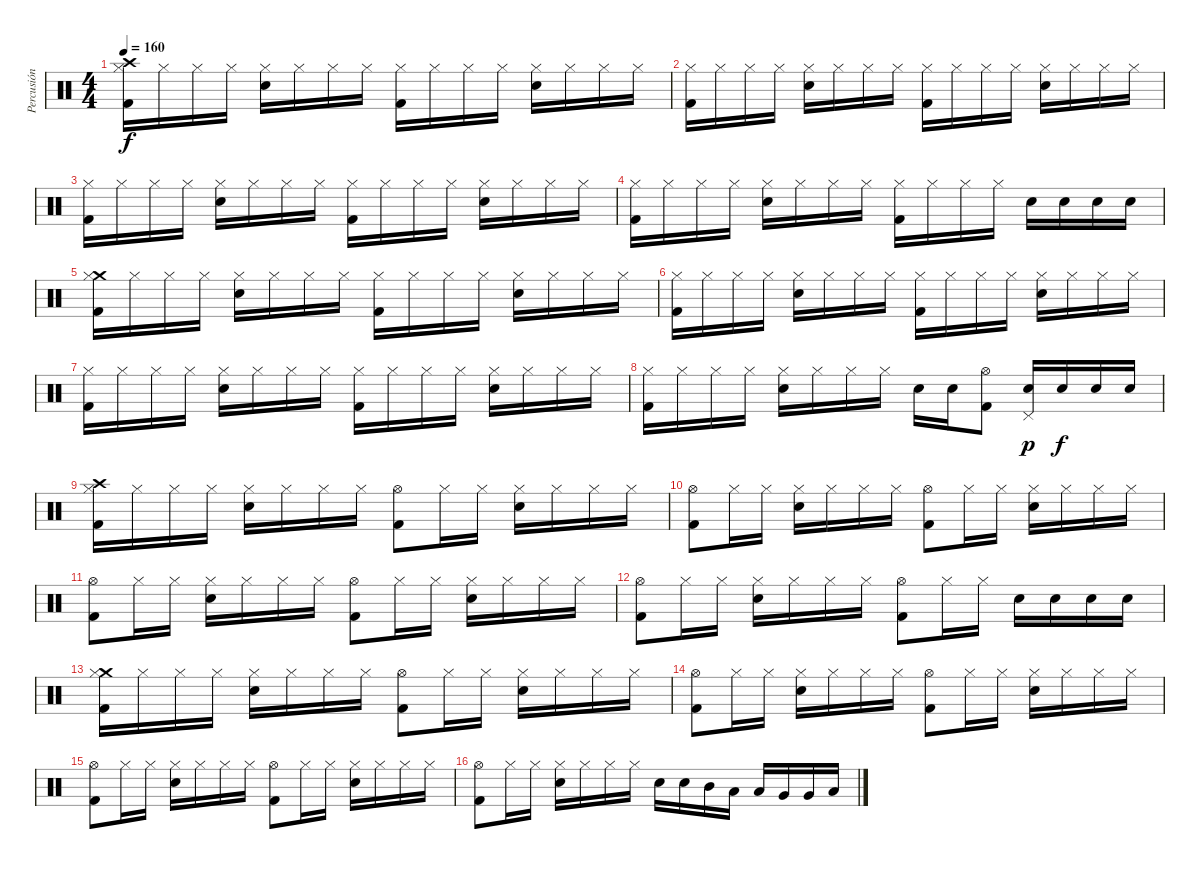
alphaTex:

\track ("Percusión" "Percusión") {instrument percussion}
\staff {score}
\articulation defaults
\ts (4 4)
\tempo 160
\clef neutral
\ks c
("Crash high (hit)" "Hi-Hat (closed)" "Kick (hit) 2").16{dy f} "Hi-Hat (closed)".16 "Hi-Hat (closed)".16 "Hi-Hat (closed)".16 ("Hi-Hat (closed)" "Electric Snare (hit)").16 "Hi-Hat (closed)".16 "Hi-Hat (closed)".16 "Hi-Hat (closed)".16 ("Hi-Hat (closed)" "Kick (hit) 2").16 "Hi-Hat (closed)".16 "Hi-Hat (closed)".16 "Hi-Hat (closed)".16 ("Hi-Hat (closed)" "Electric Snare (hit)").16 "Hi-Hat (closed)".16 "Hi-Hat (closed)".16 "Hi-Hat (closed)".16 |
("Hi-Hat (closed)" "Kick (hit) 2").16 "Hi-Hat (closed)".16 "Hi-Hat (closed)".16 "Hi-Hat (closed)".16 ("Hi-Hat (closed)" "Electric Snare (hit)").16 "Hi-Hat (closed)".16 "Hi-Hat (closed)".16 "Hi-Hat (closed)".16 ("Hi-Hat (closed)" "Kick (hit) 2").16 "Hi-Hat (closed)".16 "Hi-Hat (closed)".16 "Hi-Hat (closed)".16 ("Hi-Hat (closed)" "Electric Snare (hit)").16 "Hi-Hat (closed)".16 "Hi-Hat (closed)".16 "Hi-Hat (closed)".16 |
("Hi-Hat (closed)" "Kick (hit) 2").16 "Hi-Hat (closed)".16 "Hi-Hat (closed)".16 "Hi-Hat (closed)".16 ("Hi-Hat (closed)" "Electric Snare (hit)").16 "Hi-Hat (closed)".16 "Hi-Hat (closed)".16 "Hi-Hat (closed)".16 ("Hi-Hat (closed)" "Kick (hit) 2").16 "Hi-Hat (closed)".16 "Hi-Hat (closed)".16 "Hi-Hat (closed)".16 ("Hi-Hat (closed)" "Electric Snare (hit)").16 "Hi-Hat (closed)".16 "Hi-Hat (closed)".16 "Hi-Hat (closed)".16 |
("Hi-Hat (closed)" "Kick (hit) 2").16 "Hi-Hat (closed)".16 "Hi-Hat (closed)".16 "Hi-Hat (closed)".16 ("Hi-Hat (closed)" "Electric Snare (hit)").16 "Hi-Hat (closed)".16 "Hi-Hat (closed)".16 "Hi-Hat (closed)".16 ("Hi-Hat (closed)" "Kick (hit) 2").16 "Hi-Hat (closed)".16 "Hi-Hat (closed)".16 "Hi-Hat (closed)".16 "Electric Snare (hit)".16 "Electric Snare (hit)".16 "Electric Snare (hit)".16 "Electric Snare (hit)".16 |
("Crash medium (hit)" "Hi-Hat (closed)" "Kick (hit) 2").16 "Hi-Hat (closed)".16 "Hi-Hat (closed)".16 "Hi-Hat (closed)".16 ("Hi-Hat (closed)" "Electric Snare (hit)").16 "Hi-Hat (closed)".16 "Hi-Hat (closed)".16 "Hi-Hat (closed)".16 ("Hi-Hat (closed)" "Kick (hit) 2").16 "Hi-Hat (closed)".16 "Hi-Hat (closed)".16 "Hi-Hat (closed)".16 ("Hi-Hat (closed)" "Electric Snare (hit)").16 "Hi-Hat (closed)".16 "Hi-Hat (closed)".16 "Hi-Hat (closed)".16 |
("Hi-Hat (closed)" "Kick (hit) 2").16 "Hi-Hat (closed)".16 "Hi-Hat (closed)".16 "Hi-Hat (closed)".16 ("Hi-Hat (closed)" "Electric Snare (hit)").16 "Hi-Hat (closed)".16 "Hi-Hat (closed)".16 "Hi-Hat (closed)".16 ("Hi-Hat (closed)" "Kick (hit) 2").16 "Hi-Hat (closed)".16 "Hi-Hat (closed)".16 "Hi-Hat (closed)".16 ("Hi-Hat (closed)" "Electric Snare (hit)").16 "Hi-Hat (closed)".16 "Hi-Hat (closed)".16 "Hi-Hat (closed)".16 |
("Hi-Hat (closed)" "Kick (hit) 2").16 "Hi-Hat (closed)".16 "Hi-Hat (closed)".16 "Hi-Hat (closed)".16 ("Hi-Hat (closed)" "Electric Snare (hit)").16 "Hi-Hat (closed)".16 "Hi-Hat (closed)".16 "Hi-Hat (closed)".16 ("Hi-Hat (closed)" "Kick (hit) 2").16 "Hi-Hat (closed)".16 "Hi-Hat (closed)".16 "Hi-Hat (closed)".16 ("Hi-Hat (closed)" "Electric Snare (hit)").16 "Hi-Hat (closed)".16 "Hi-Hat (closed)".16 "Hi-Hat (closed)".16 |
("Hi-Hat (closed)" "Kick (hit) 2").16 "Hi-Hat (closed)".16 "Hi-Hat (closed)".16 "Hi-Hat (closed)".16 ("Hi-Hat (closed)" "Electric Snare (hit)").16 "Hi-Hat (closed)".16 "Hi-Hat (closed)".16 "Hi-Hat (closed)".16 "Electric Snare (hit)".16 "Electric Snare (hit)".16 ("Hi-Hat (open)" "Kick (hit) 2").8 ("Pedal Hi-Hat (hit)" "Electric Snare (hit)").16{dy p} "Electric Snare (hit)".16{dy f} "Electric Snare (hit)".16 "Electric Snare (hit)".16 |
("Crash high (hit)" "Hi-Hat (closed)" "Kick (hit) 2").16 "Hi-Hat (closed)".16 "Hi-Hat (closed)".16 "Hi-Hat (closed)".16 ("Hi-Hat (closed)" "Electric Snare (hit)").16 "Hi-Hat (closed)".16 "Hi-Hat (closed)".16 "Hi-Hat (closed)".16 ("Hi-Hat (open)" "Kick (hit) 2").8 "Hi-Hat (closed)".16 "Hi-Hat (closed)".16 ("Hi-Hat (closed)" "Electric Snare (hit)").16 "Hi-Hat (closed)".16 "Hi-Hat (closed)".16 "Hi-Hat (closed)".16 |
("Hi-Hat (open)" "Kick (hit) 2").8 "Hi-Hat (closed)".16 "Hi-Hat (closed)".16 ("Hi-Hat (closed)" "Electric Snare (hit)").16 "Hi-Hat (closed)".16 "Hi-Hat (closed)".16 "Hi-Hat (closed)".16 ("Hi-Hat (open)" "Kick (hit) 2").8 "Hi-Hat (closed)".16 "Hi-Hat (closed)".16 ("Hi-Hat (closed)" "Electric Snare (hit)").16 "Hi-Hat (closed)".16 "Hi-Hat (closed)".16 "Hi-Hat (closed)".16 |
("Hi-Hat (open)" "Kick (hit) 2").8 "Hi-Hat (closed)".16 "Hi-Hat (closed)".16 ("Hi-Hat (closed)" "Electric Snare (hit)").16 "Hi-Hat (closed)".16 "Hi-Hat (closed)".16 "Hi-Hat (closed)".16 ("Hi-Hat (open)" "Kick (hit) 2").8 "Hi-Hat (closed)".16 "Hi-Hat (closed)".16 ("Hi-Hat (closed)" "Electric Snare (hit)").16 "Hi-Hat (closed)".16 "Hi-Hat (closed)".16 "Hi-Hat (closed)".16 |
("Hi-Hat (open)" "Kick (hit) 2").8 "Hi-Hat (closed)".16 "Hi-Hat (closed)".16 ("Hi-Hat (closed)" "Electric Snare (hit)").16 "Hi-Hat (closed)".16 "Hi-Hat (closed)".16 "Hi-Hat (closed)".16 ("Hi-Hat (open)" "Kick (hit) 2").8 "Hi-Hat (closed)".16 "Hi-Hat (closed)".16 "Electric Snare (hit)".16 "Electric Snare (hit)".16 "Electric Snare (hit)".16 "Electric Snare (hit)".16 |
("Crash medium (hit)" "Hi-Hat (closed)" "Kick (hit) 2").16 "Hi-Hat (closed)".16 "Hi-Hat (closed)".16 "Hi-Hat (closed)".16 ("Hi-Hat (closed)" "Electric Snare (hit)").16 "Hi-Hat (closed)".16 "Hi-Hat (closed)".16 "Hi-Hat (closed)".16 ("Hi-Hat (open)" "Kick (hit) 2").8 "Hi-Hat (closed)".16 "Hi-Hat (closed)".16 ("Hi-Hat (closed)" "Electric Snare (hit)").16 "Hi-Hat (closed)".16 "Hi-Hat (closed)".16 "Hi-Hat (closed)".16 |
("Hi-Hat (open)" "Kick (hit) 2").8 "Hi-Hat (closed)".16 "Hi-Hat (closed)".16 ("Hi-Hat (closed)" "Electric Snare (hit)").16 "Hi-Hat (closed)".16 "Hi-Hat (closed)".16 "Hi-Hat (closed)".16 ("Hi-Hat (open)" "Kick (hit) 2").8 "Hi-Hat (closed)".16 "Hi-Hat (closed)".16 ("Hi-Hat (closed)" "Electric Snare (hit)").16 "Hi-Hat (closed)".16 "Hi-Hat (closed)".16 "Hi-Hat (closed)".16 |
("Hi-Hat (open)" "Kick (hit) 2").8 "Hi-Hat (closed)".16 "Hi-Hat (closed)".16 ("Hi-Hat (closed)" "Electric Snare (hit)").16 "Hi-Hat (closed)".16 "Hi-Hat (closed)".16 "Hi-Hat (closed)".16 ("Hi-Hat (open)" "Kick (hit) 2").8 "Hi-Hat (closed)".16 "Hi-Hat (closed)".16 ("Hi-Hat (closed)" "Electric Snare (hit)").16 "Hi-Hat (closed)".16 "Hi-Hat (closed)".16 "Hi-Hat (closed)".16 |
("Hi-Hat (open)" "Kick (hit) 2").8 "Hi-Hat (closed)".16 "Hi-Hat (closed)".16 ("Hi-Hat (closed)" "Electric Snare (hit)").16 "Hi-Hat (closed)".16 "Hi-Hat (closed)".16 "Hi-Hat (closed)".16 "Electric Snare (hit)".16 "Electric Snare (hit)".16 "Mid Tom (hit)".16 "Low Tom (hit)".16 "Low Tom (hit)".16 "Very Low Tom (hit)".16 "Very Low Tom (hit)".16 "Low Floor Tom (hit)".16
